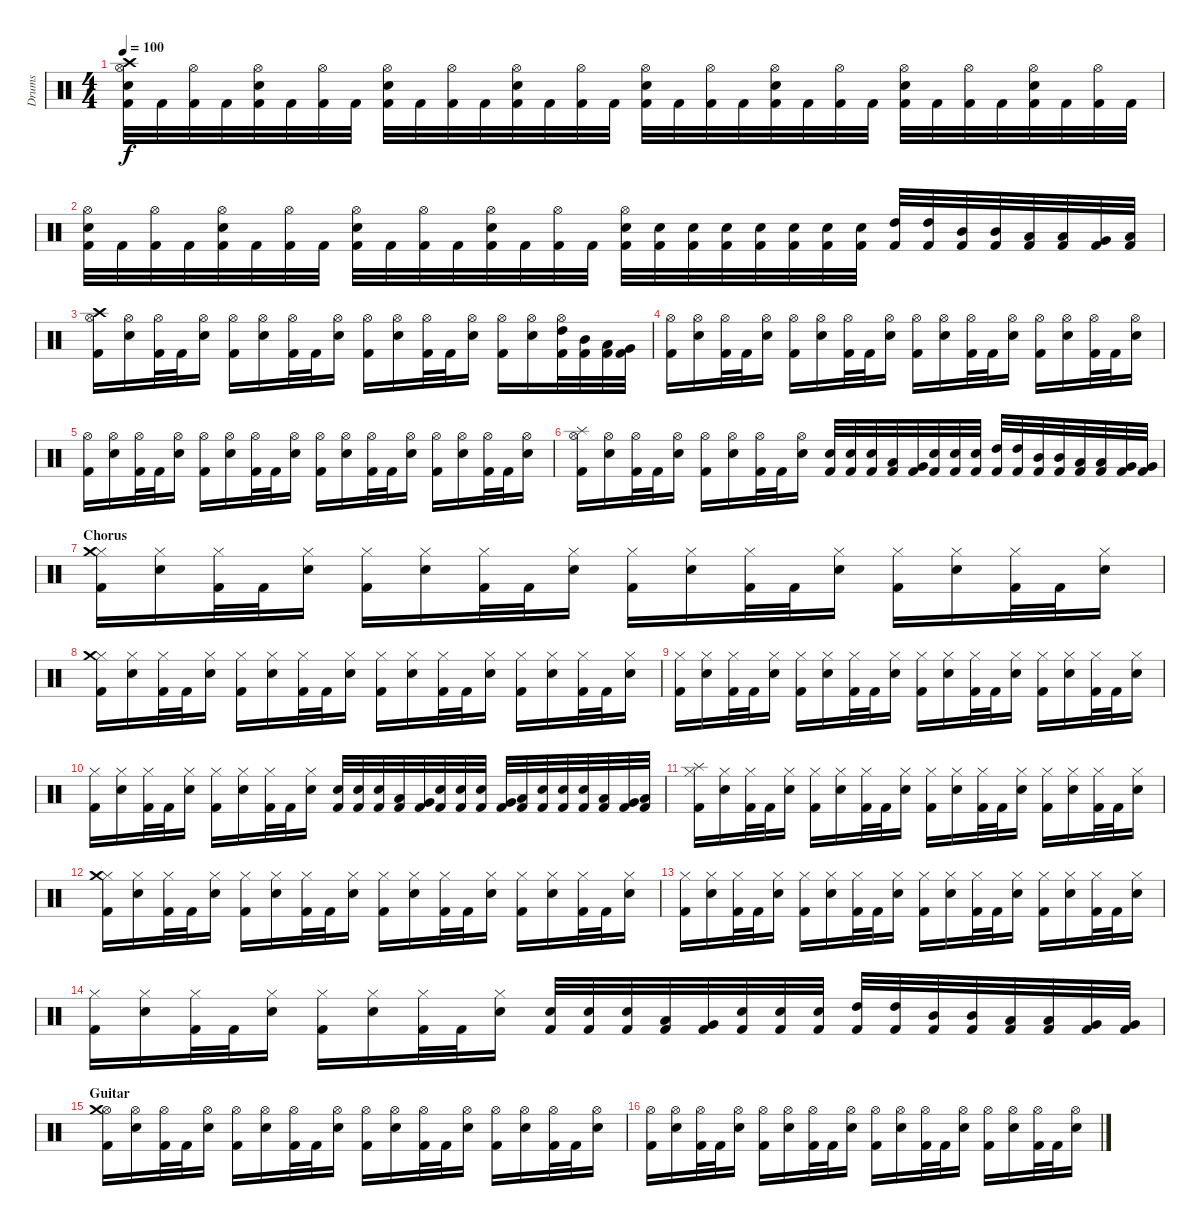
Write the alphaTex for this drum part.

\track ("Drums" "Drums") {instrument percussion}
\staff {score}
\articulation defaults
\ts (4 4)
\tempo 100
\clef neutral
\ks c
("Kick (hit) 2" "Snare (hit) 2" "Hi-Hat (open)" "Crash high (hit)").32{dy f} "Kick (hit) 2".32 ("Kick (hit) 2" "Hi-Hat (open)").32 "Kick (hit) 2".32 ("Kick (hit) 2" "Snare (hit) 2" "Hi-Hat (open)").32 "Kick (hit) 2".32 ("Kick (hit) 2" "Hi-Hat (open)").32 "Kick (hit) 2".32 ("Kick (hit) 2" "Snare (hit) 2" "Hi-Hat (open)").32 "Kick (hit) 2".32 ("Kick (hit) 2" "Hi-Hat (open)").32 "Kick (hit) 2".32 ("Kick (hit) 2" "Snare (hit) 2" "Hi-Hat (open)").32 "Kick (hit) 2".32 ("Kick (hit) 2" "Hi-Hat (open)").32 "Kick (hit) 2".32 ("Kick (hit) 2" "Snare (hit) 2" "Hi-Hat (open)").32 "Kick (hit) 2".32 ("Kick (hit) 2" "Hi-Hat (open)").32 "Kick (hit) 2".32 ("Kick (hit) 2" "Snare (hit) 2" "Hi-Hat (open)").32 "Kick (hit) 2".32 ("Kick (hit) 2" "Hi-Hat (open)").32 "Kick (hit) 2".32 ("Kick (hit) 2" "Snare (hit) 2" "Hi-Hat (open)").32 "Kick (hit) 2".32 ("Kick (hit) 2" "Hi-Hat (open)").32 "Kick (hit) 2".32 ("Kick (hit) 2" "Snare (hit) 2" "Hi-Hat (open)").32 "Kick (hit) 2".32 ("Kick (hit) 2" "Hi-Hat (open)").32 "Kick (hit) 2".32 |
("Kick (hit) 2" "Snare (hit) 2" "Hi-Hat (open)").32 "Kick (hit) 2".32 ("Kick (hit) 2" "Hi-Hat (open)").32 "Kick (hit) 2".32 ("Kick (hit) 2" "Snare (hit) 2" "Hi-Hat (open)").32 "Kick (hit) 2".32 ("Kick (hit) 2" "Hi-Hat (open)").32 "Kick (hit) 2".32 ("Kick (hit) 2" "Snare (hit) 2" "Hi-Hat (open)").32 "Kick (hit) 2".32 ("Kick (hit) 2" "Hi-Hat (open)").32 "Kick (hit) 2".32 ("Kick (hit) 2" "Snare (hit) 2" "Hi-Hat (open)").32 "Kick (hit) 2".32 ("Kick (hit) 2" "Hi-Hat (open)").32 "Kick (hit) 2".32 ("Kick (hit) 2" "Snare (hit) 2" "Hi-Hat (open)").32 ("Kick (hit) 2" "Snare (hit) 2").32 ("Kick (hit) 2" "Snare (hit) 2").32 ("Kick (hit) 2" "Snare (hit) 2").32 ("Kick (hit) 2" "Snare (hit) 2").32 ("Kick (hit) 2" "Snare (hit) 2").32 ("Kick (hit) 2" "Snare (hit) 2").32 ("Kick (hit) 2" "Snare (hit) 2").32 ("Kick (hit) 2" "High Tom (hit)").32 ("Kick (hit) 2" "High Tom (hit)").32 ("Kick (hit) 2" "Mid Tom (hit)").32 ("Kick (hit) 2" "Mid Tom (hit)").32 ("Kick (hit) 2" "Low Tom (hit)").32 ("Kick (hit) 2" "Low Tom (hit)").32 ("Kick (hit) 2" "Very Low Tom (hit)").32 ("Kick (hit) 2" "Low Floor Tom (hit)").32 |
\section ("" "")
("Kick (hit) 2" "Hi-Hat (open)" "Crash high (hit)").16 ("Snare (hit) 2" "Hi-Hat (open)").16 ("Kick (hit) 2" "Hi-Hat (open)").32 "Kick (hit) 2".32 ("Snare (hit) 2" "Hi-Hat (open)").16 ("Kick (hit) 2" "Hi-Hat (open)").16 ("Snare (hit) 2" "Hi-Hat (open)").16 ("Kick (hit) 2" "Hi-Hat (open)").32 "Kick (hit) 2".32 ("Snare (hit) 2" "Hi-Hat (open)").16 ("Kick (hit) 2" "Hi-Hat (open)").16 ("Snare (hit) 2" "Hi-Hat (open)").16 ("Kick (hit) 2" "Hi-Hat (open)").32 "Kick (hit) 2".32 ("Snare (hit) 2" "Hi-Hat (open)").16 ("Kick (hit) 2" "Hi-Hat (open)").16 ("Snare (hit) 2" "Hi-Hat (open)").16 ("Kick (hit) 2" "High Tom (hit)" "Hi-Hat (open)").32 ("Kick (hit) 2" "Mid Tom (hit)").32 ("Kick (hit) 2" "Low Tom (hit)").32 ("Kick (hit) 2" "Very Low Tom (hit)").32 |
("Kick (hit) 2" "Hi-Hat (open)").16 ("Snare (hit) 2" "Hi-Hat (open)").16 ("Kick (hit) 2" "Hi-Hat (open)").32 "Kick (hit) 2".32 ("Snare (hit) 2" "Hi-Hat (open)").16 ("Kick (hit) 2" "Hi-Hat (open)").16 ("Snare (hit) 2" "Hi-Hat (open)").16 ("Kick (hit) 2" "Hi-Hat (open)").32 "Kick (hit) 2".32 ("Snare (hit) 2" "Hi-Hat (open)").16 ("Kick (hit) 2" "Hi-Hat (open)").16 ("Snare (hit) 2" "Hi-Hat (open)").16 ("Kick (hit) 2" "Hi-Hat (open)").32 "Kick (hit) 2".32 ("Snare (hit) 2" "Hi-Hat (open)").16 ("Kick (hit) 2" "Hi-Hat (open)").16 ("Snare (hit) 2" "Hi-Hat (open)").16 ("Kick (hit) 2" "Hi-Hat (open)").32 "Kick (hit) 2".32 ("Snare (hit) 2" "Hi-Hat (open)").16 |
("Kick (hit) 2" "Hi-Hat (open)").16 ("Snare (hit) 2" "Hi-Hat (open)").16 ("Kick (hit) 2" "Hi-Hat (open)").32 "Kick (hit) 2".32 ("Snare (hit) 2" "Hi-Hat (open)").16 ("Kick (hit) 2" "Hi-Hat (open)").16 ("Snare (hit) 2" "Hi-Hat (open)").16 ("Kick (hit) 2" "Hi-Hat (open)").32 "Kick (hit) 2".32 ("Snare (hit) 2" "Hi-Hat (open)").16 ("Kick (hit) 2" "Hi-Hat (open)").16 ("Snare (hit) 2" "Hi-Hat (open)").16 ("Kick (hit) 2" "Hi-Hat (open)").32 "Kick (hit) 2".32 ("Snare (hit) 2" "Hi-Hat (open)").16 ("Kick (hit) 2" "Hi-Hat (open)").16 ("Snare (hit) 2" "Hi-Hat (open)").16 ("Kick (hit) 2" "Hi-Hat (open)").32 "Kick (hit) 2".32 ("Snare (hit) 2" "Hi-Hat (open)").16 |
("Kick (hit) 2" "Hi-Hat (open)" "Splash (hit)").16 ("Snare (hit) 2" "Hi-Hat (open)").16 ("Kick (hit) 2" "Hi-Hat (open)").32 "Kick (hit) 2".32 ("Snare (hit) 2" "Hi-Hat (open)").16 ("Kick (hit) 2" "Hi-Hat (open)").16 ("Snare (hit) 2" "Hi-Hat (open)").16 ("Kick (hit) 2" "Hi-Hat (open)").32 "Kick (hit) 2".32 ("Snare (hit) 2" "Hi-Hat (open)").16 ("Kick (hit) 2" "Snare (hit) 2").32 ("Kick (hit) 2" "Snare (hit) 2").32 ("Kick (hit) 2" "Snare (hit) 2").32 ("Kick (hit) 2" "Low Tom (hit)").32 ("Kick (hit) 2" "Very Low Tom (hit)").32 ("Kick (hit) 2" "Snare (hit) 2").32 ("Kick (hit) 2" "Snare (hit) 2").32 ("Kick (hit) 2" "Snare (hit) 2").32 ("Kick (hit) 2" "High Tom (hit)").32 ("Kick (hit) 2" "High Tom (hit)").32 ("Kick (hit) 2" "Mid Tom (hit)").32 ("Kick (hit) 2" "Mid Tom (hit)").32 ("Kick (hit) 2" "Low Tom (hit)").32 ("Kick (hit) 2" "Low Tom (hit)").32 ("Kick (hit) 2" "Very Low Tom (hit)").32 ("Kick (hit) 2" "Very Low Tom (hit)").32 |
\section ("" "Chorus")
("Kick (hit) 2" "Hi-Hat (closed)" "Crash medium (hit)").16 ("Snare (hit) 2" "Hi-Hat (closed)").16 ("Kick (hit) 2" "Hi-Hat (closed)").32 "Kick (hit) 2".32 ("Snare (hit) 2" "Hi-Hat (closed)").16 ("Kick (hit) 2" "Hi-Hat (closed)").16 ("Snare (hit) 2" "Hi-Hat (closed)").16 ("Kick (hit) 2" "Hi-Hat (closed)").32 "Kick (hit) 2".32 ("Snare (hit) 2" "Hi-Hat (closed)").16 ("Kick (hit) 2" "Hi-Hat (closed)").16 ("Snare (hit) 2" "Hi-Hat (closed)").16 ("Kick (hit) 2" "Hi-Hat (closed)").32 "Kick (hit) 2".32 ("Snare (hit) 2" "Hi-Hat (closed)").16 ("Kick (hit) 2" "Hi-Hat (closed)").16 ("Snare (hit) 2" "Hi-Hat (closed)").16 ("Kick (hit) 2" "Hi-Hat (closed)").32 "Kick (hit) 2".32 ("Snare (hit) 2" "Hi-Hat (closed)").16 |
("Kick (hit) 2" "Hi-Hat (closed)" "Crash medium (hit)").16 ("Snare (hit) 2" "Hi-Hat (closed)").16 ("Kick (hit) 2" "Hi-Hat (closed)").32 "Kick (hit) 2".32 ("Snare (hit) 2" "Hi-Hat (closed)").16 ("Kick (hit) 2" "Hi-Hat (closed)").16 ("Snare (hit) 2" "Hi-Hat (closed)").16 ("Kick (hit) 2" "Hi-Hat (closed)").32 "Kick (hit) 2".32 ("Snare (hit) 2" "Hi-Hat (closed)").16 ("Kick (hit) 2" "Hi-Hat (closed)").16 ("Snare (hit) 2" "Hi-Hat (closed)").16 ("Kick (hit) 2" "Hi-Hat (closed)").32 "Kick (hit) 2".32 ("Snare (hit) 2" "Hi-Hat (closed)").16 ("Kick (hit) 2" "Hi-Hat (closed)").16 ("Snare (hit) 2" "Hi-Hat (closed)").16 ("Kick (hit) 2" "Hi-Hat (closed)").32 "Kick (hit) 2".32 ("Snare (hit) 2" "Hi-Hat (closed)").16 |
("Kick (hit) 2" "Hi-Hat (closed)").16 ("Snare (hit) 2" "Hi-Hat (closed)").16 ("Kick (hit) 2" "Hi-Hat (closed)").32 "Kick (hit) 2".32 ("Snare (hit) 2" "Hi-Hat (closed)").16 ("Kick (hit) 2" "Hi-Hat (closed)").16 ("Snare (hit) 2" "Hi-Hat (closed)").16 ("Kick (hit) 2" "Hi-Hat (closed)").32 "Kick (hit) 2".32 ("Snare (hit) 2" "Hi-Hat (closed)").16 ("Kick (hit) 2" "Hi-Hat (closed)").16 ("Snare (hit) 2" "Hi-Hat (closed)").16 ("Kick (hit) 2" "Hi-Hat (closed)").32 "Kick (hit) 2".32 ("Snare (hit) 2" "Hi-Hat (closed)").16 ("Kick (hit) 2" "Hi-Hat (closed)").16 ("Snare (hit) 2" "Hi-Hat (closed)").16 ("Kick (hit) 2" "Hi-Hat (closed)").32 "Kick (hit) 2".32 ("Snare (hit) 2" "Hi-Hat (closed)").16 |
("Kick (hit) 2" "Hi-Hat (closed)").16 ("Snare (hit) 2" "Hi-Hat (closed)").16 ("Kick (hit) 2" "Hi-Hat (closed)").32 "Kick (hit) 2".32 ("Snare (hit) 2" "Hi-Hat (closed)").16 ("Kick (hit) 2" "Hi-Hat (closed)").16 ("Snare (hit) 2" "Hi-Hat (closed)").16 ("Kick (hit) 2" "Hi-Hat (closed)").32 "Kick (hit) 2".32 ("Snare (hit) 2" "Hi-Hat (closed)").16 ("Kick (hit) 2" "Snare (hit) 2").32 ("Kick (hit) 2" "Snare (hit) 2").32 ("Kick (hit) 2" "Snare (hit) 2").32 ("Kick (hit) 2" "Low Tom (hit)").32 ("Kick (hit) 2" "Very Low Tom (hit)").32 ("Kick (hit) 2" "Snare (hit) 2").32 ("Kick (hit) 2" "Snare (hit) 2").32 ("Kick (hit) 2" "Snare (hit) 2").32 ("Kick (hit) 2" "Very Low Tom (hit)").32 ("Kick (hit) 2" "Low Floor Tom (hit)").32 ("Kick (hit) 2" "Snare (hit) 2").32 ("Kick (hit) 2" "Snare (hit) 2").32 ("Kick (hit) 2" "Snare (hit) 2").32 ("Kick (hit) 2" "Low Tom (hit)").32 ("Kick (hit) 2" "Very Low Tom (hit)").32 ("Kick (hit) 2" "Low Floor Tom (hit)").32 |
("Kick (hit) 2" "Hi-Hat (closed)" "Splash (hit)").16 ("Snare (hit) 2" "Hi-Hat (closed)").16 ("Kick (hit) 2" "Hi-Hat (closed)").32 "Kick (hit) 2".32 ("Snare (hit) 2" "Hi-Hat (closed)").16 ("Kick (hit) 2" "Hi-Hat (closed)").16 ("Snare (hit) 2" "Hi-Hat (closed)").16 ("Kick (hit) 2" "Hi-Hat (closed)").32 "Kick (hit) 2".32 ("Snare (hit) 2" "Hi-Hat (closed)").16 ("Kick (hit) 2" "Hi-Hat (closed)").16 ("Snare (hit) 2" "Hi-Hat (closed)").16 ("Kick (hit) 2" "Hi-Hat (closed)").32 "Kick (hit) 2".32 ("Snare (hit) 2" "Hi-Hat (closed)").16 ("Kick (hit) 2" "Hi-Hat (closed)").16 ("Snare (hit) 2" "Hi-Hat (closed)").16 ("Kick (hit) 2" "Hi-Hat (closed)").32 "Kick (hit) 2".32 ("Snare (hit) 2" "Hi-Hat (closed)").16 |
("Kick (hit) 2" "Hi-Hat (closed)" "Crash medium (hit)").16 ("Snare (hit) 2" "Hi-Hat (closed)").16 ("Kick (hit) 2" "Hi-Hat (closed)").32 "Kick (hit) 2".32 ("Snare (hit) 2" "Hi-Hat (closed)").16 ("Kick (hit) 2" "Hi-Hat (closed)").16 ("Snare (hit) 2" "Hi-Hat (closed)").16 ("Kick (hit) 2" "Hi-Hat (closed)").32 "Kick (hit) 2".32 ("Snare (hit) 2" "Hi-Hat (closed)").16 ("Kick (hit) 2" "Hi-Hat (closed)").16 ("Snare (hit) 2" "Hi-Hat (closed)").16 ("Kick (hit) 2" "Hi-Hat (closed)").32 "Kick (hit) 2".32 ("Snare (hit) 2" "Hi-Hat (closed)").16 ("Kick (hit) 2" "Hi-Hat (closed)").16 ("Snare (hit) 2" "Hi-Hat (closed)").16 ("Kick (hit) 2" "Hi-Hat (closed)").32 "Kick (hit) 2".32 ("Snare (hit) 2" "Hi-Hat (closed)").16 |
("Kick (hit) 2" "Hi-Hat (closed)").16 ("Snare (hit) 2" "Hi-Hat (closed)").16 ("Kick (hit) 2" "Hi-Hat (closed)").32 "Kick (hit) 2".32 ("Snare (hit) 2" "Hi-Hat (closed)").16 ("Kick (hit) 2" "Hi-Hat (closed)").16 ("Snare (hit) 2" "Hi-Hat (closed)").16 ("Kick (hit) 2" "Hi-Hat (closed)").32 "Kick (hit) 2".32 ("Snare (hit) 2" "Hi-Hat (closed)").16 ("Kick (hit) 2" "Hi-Hat (closed)").16 ("Snare (hit) 2" "Hi-Hat (closed)").16 ("Kick (hit) 2" "Hi-Hat (closed)").32 "Kick (hit) 2".32 ("Snare (hit) 2" "Hi-Hat (closed)").16 ("Kick (hit) 2" "Hi-Hat (closed)").16 ("Snare (hit) 2" "Hi-Hat (closed)").16 ("Kick (hit) 2" "Hi-Hat (closed)").32 "Kick (hit) 2".32 ("Snare (hit) 2" "Hi-Hat (closed)").16 |
("Kick (hit) 2" "Hi-Hat (closed)").16 ("Snare (hit) 2" "Hi-Hat (closed)").16 ("Kick (hit) 2" "Hi-Hat (closed)").32 "Kick (hit) 2".32 ("Snare (hit) 2" "Hi-Hat (closed)").16 ("Kick (hit) 2" "Hi-Hat (closed)").16 ("Snare (hit) 2" "Hi-Hat (closed)").16 ("Kick (hit) 2" "Hi-Hat (closed)").32 "Kick (hit) 2".32 ("Snare (hit) 2" "Hi-Hat (closed)").16 ("Kick (hit) 2" "Snare (hit) 2").32 ("Kick (hit) 2" "Snare (hit) 2").32 ("Kick (hit) 2" "Snare (hit) 2").32 ("Kick (hit) 2" "Low Tom (hit)").32 ("Kick (hit) 2" "Very Low Tom (hit)").32 ("Kick (hit) 2" "Snare (hit) 2").32 ("Kick (hit) 2" "Snare (hit) 2").32 ("Kick (hit) 2" "Snare (hit) 2").32 ("Kick (hit) 2" "High Tom (hit)").32 ("Kick (hit) 2" "High Tom (hit)").32 ("Kick (hit) 2" "Mid Tom (hit)").32 ("Kick (hit) 2" "Mid Tom (hit)").32 ("Kick (hit) 2" "Low Tom (hit)").32 ("Kick (hit) 2" "Low Tom (hit)").32 ("Kick (hit) 2" "Very Low Tom (hit)").32 ("Kick (hit) 2" "Very Low Tom (hit)").32 |
\section ("" "Guitar")
("Kick (hit) 2" "Hi-Hat (open)" "Crash medium (hit)").16 ("Snare (hit) 2" "Hi-Hat (open)").16 ("Kick (hit) 2" "Hi-Hat (open)").32 "Kick (hit) 2".32 ("Snare (hit) 2" "Hi-Hat (open)").16 ("Kick (hit) 2" "Hi-Hat (open)").16 ("Snare (hit) 2" "Hi-Hat (open)").16 ("Kick (hit) 2" "Hi-Hat (open)").32 "Kick (hit) 2".32 ("Snare (hit) 2" "Hi-Hat (open)").16 ("Kick (hit) 2" "Hi-Hat (open)").16 ("Snare (hit) 2" "Hi-Hat (open)").16 ("Kick (hit) 2" "Hi-Hat (open)").32 "Kick (hit) 2".32 ("Snare (hit) 2" "Hi-Hat (open)").16 ("Kick (hit) 2" "Hi-Hat (open)").16 ("Snare (hit) 2" "Hi-Hat (open)").16 ("Kick (hit) 2" "Hi-Hat (open)").32 "Kick (hit) 2".32 ("Snare (hit) 2" "Hi-Hat (open)").16 |
("Kick (hit) 2" "Hi-Hat (open)").16 ("Snare (hit) 2" "Hi-Hat (open)").16 ("Kick (hit) 2" "Hi-Hat (open)").32 "Kick (hit) 2".32 ("Snare (hit) 2" "Hi-Hat (open)").16 ("Kick (hit) 2" "Hi-Hat (open)").16 ("Snare (hit) 2" "Hi-Hat (open)").16 ("Kick (hit) 2" "Hi-Hat (open)").32 "Kick (hit) 2".32 ("Snare (hit) 2" "Hi-Hat (open)").16 ("Kick (hit) 2" "Hi-Hat (open)").16 ("Snare (hit) 2" "Hi-Hat (open)").16 ("Kick (hit) 2" "Hi-Hat (open)").32 "Kick (hit) 2".32 ("Snare (hit) 2" "Hi-Hat (open)").16 ("Kick (hit) 2" "Hi-Hat (open)").16 ("Snare (hit) 2" "Hi-Hat (open)").16 ("Kick (hit) 2" "Hi-Hat (open)").32 "Kick (hit) 2".32 ("Snare (hit) 2" "Hi-Hat (open)").16
